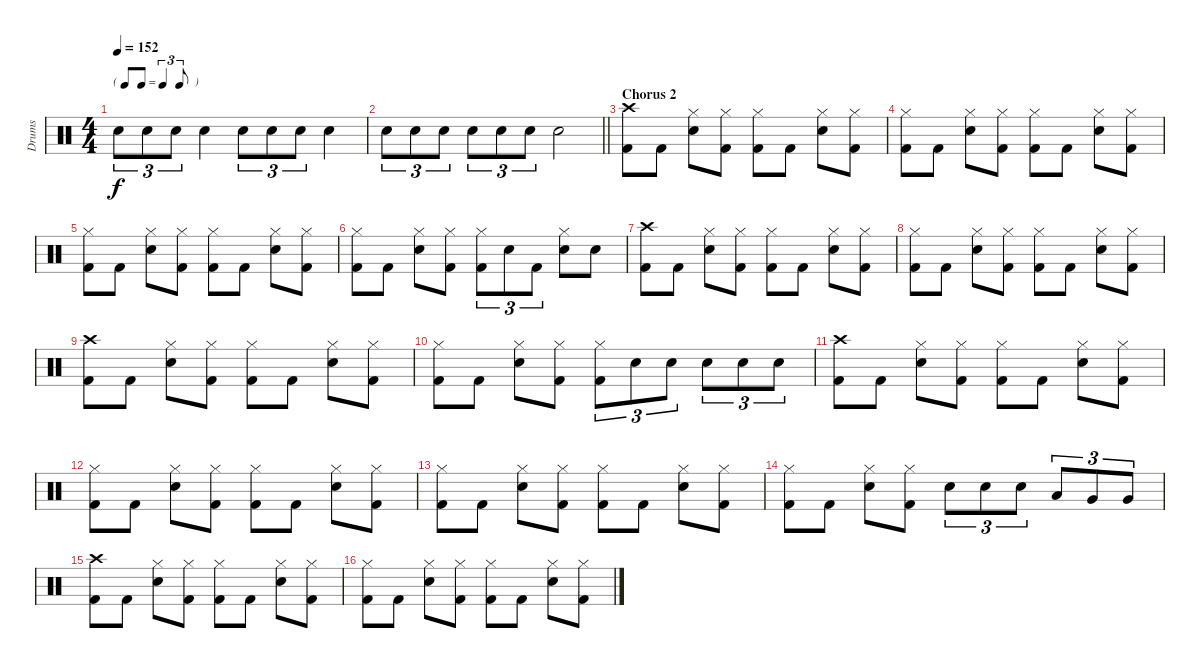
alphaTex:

\track ("Drums" "Drums") {instrument percussion}
\staff {score}
\articulation defaults
\ts (4 4)
\tf triplet8th
\tempo 152
\clef neutral
\ks c "Snare (hit) 2".8{tu (3 2) dy f} "Snare (hit) 2".8{tu (3 2)} "Snare (hit) 2".8{tu (3 2)} "Snare (hit) 2".4 "Snare (hit) 2".8{tu (3 2)} "Snare (hit) 2".8{tu (3 2)} "Snare (hit) 2".8{tu (3 2)} "Snare (hit) 2".4
|
\barLineRight lightlight "Snare (hit) 2".8{tu (3 2)} "Snare (hit) 2".8{tu (3 2)} "Snare (hit) 2".8{tu (3 2)} "Snare (hit) 2".8{tu (3 2)} "Snare (hit) 2".8{tu (3 2)} "Snare (hit) 2".8{tu (3 2)} "Snare (hit) 2".2
|
\section ("" "Chorus 2")
("Crash high (hit)" "Kick (hit) 2").8 "Kick (hit) 2".8 ("Hi-Hat (closed)" "Snare (hit) 2").8 ("Hi-Hat (closed)" "Kick (hit) 2").8 ("Hi-Hat (closed)" "Kick (hit) 2").8 "Kick (hit) 2".8 ("Hi-Hat (closed)" "Snare (hit) 2").8 ("Hi-Hat (closed)" "Kick (hit) 2").8 |
("Hi-Hat (closed)" "Kick (hit) 2").8 "Kick (hit) 2".8 ("Hi-Hat (closed)" "Snare (hit) 2").8 ("Hi-Hat (closed)" "Kick (hit) 2").8 ("Hi-Hat (closed)" "Kick (hit) 2").8 "Kick (hit) 2".8 ("Hi-Hat (closed)" "Snare (hit) 2").8 ("Hi-Hat (closed)" "Kick (hit) 2").8 |
("Hi-Hat (closed)" "Kick (hit) 2").8 "Kick (hit) 2".8 ("Hi-Hat (closed)" "Snare (hit) 2").8 ("Hi-Hat (closed)" "Kick (hit) 2").8 ("Hi-Hat (closed)" "Kick (hit) 2").8 "Kick (hit) 2".8 ("Hi-Hat (closed)" "Snare (hit) 2").8 ("Hi-Hat (closed)" "Kick (hit) 2").8 |
("Hi-Hat (closed)" "Kick (hit) 2").8 "Kick (hit) 2".8 ("Hi-Hat (closed)" "Snare (hit) 2").8 ("Hi-Hat (closed)" "Kick (hit) 2").8 ("Hi-Hat (closed)" "Kick (hit) 2").8{tu (3 2)} "Snare (hit) 2".8{tu (3 2)} "Kick (hit) 2".8{tu (3 2)} ("Hi-Hat (closed)" "Snare (hit) 2").8 "Snare (hit) 2".8 |
("Crash high (hit)" "Kick (hit) 2").8 "Kick (hit) 2".8 ("Hi-Hat (closed)" "Snare (hit) 2").8 ("Hi-Hat (closed)" "Kick (hit) 2").8 ("Hi-Hat (closed)" "Kick (hit) 2").8 "Kick (hit) 2".8 ("Hi-Hat (closed)" "Snare (hit) 2").8 ("Hi-Hat (closed)" "Kick (hit) 2").8 |
("Hi-Hat (closed)" "Kick (hit) 2").8 "Kick (hit) 2".8 ("Hi-Hat (closed)" "Snare (hit) 2").8 ("Hi-Hat (closed)" "Kick (hit) 2").8 ("Hi-Hat (closed)" "Kick (hit) 2").8 "Kick (hit) 2".8 ("Hi-Hat (closed)" "Snare (hit) 2").8 ("Hi-Hat (closed)" "Kick (hit) 2").8 |
("Crash high (hit)" "Kick (hit) 2").8 "Kick (hit) 2".8 ("Hi-Hat (closed)" "Snare (hit) 2").8 ("Hi-Hat (closed)" "Kick (hit) 2").8 ("Hi-Hat (closed)" "Kick (hit) 2").8 "Kick (hit) 2".8 ("Hi-Hat (closed)" "Snare (hit) 2").8 ("Hi-Hat (closed)" "Kick (hit) 2").8 |
("Hi-Hat (closed)" "Kick (hit) 2").8 "Kick (hit) 2".8 ("Hi-Hat (closed)" "Snare (hit) 2").8 ("Hi-Hat (closed)" "Kick (hit) 2").8 ("Hi-Hat (closed)" "Kick (hit) 2").8{tu (3 2)} "Snare (hit) 2".8{tu (3 2)} "Snare (hit) 2".8{tu (3 2)} "Snare (hit) 2".8{tu (3 2)} "Snare (hit) 2".8{tu (3 2)} "Snare (hit) 2".8{tu (3 2)} |
("Crash high (hit)" "Kick (hit) 2").8 "Kick (hit) 2".8 ("Hi-Hat (closed)" "Snare (hit) 2").8 ("Hi-Hat (closed)" "Kick (hit) 2").8 ("Hi-Hat (closed)" "Kick (hit) 2").8 "Kick (hit) 2".8 ("Hi-Hat (closed)" "Snare (hit) 2").8 ("Hi-Hat (closed)" "Kick (hit) 2").8 |
("Hi-Hat (closed)" "Kick (hit) 2").8 "Kick (hit) 2".8 ("Hi-Hat (closed)" "Snare (hit) 2").8 ("Hi-Hat (closed)" "Kick (hit) 2").8 ("Hi-Hat (closed)" "Kick (hit) 2").8 "Kick (hit) 2".8 ("Hi-Hat (closed)" "Snare (hit) 2").8 ("Hi-Hat (closed)" "Kick (hit) 2").8 |
("Hi-Hat (closed)" "Kick (hit) 2").8 "Kick (hit) 2".8 ("Hi-Hat (closed)" "Snare (hit) 2").8 ("Hi-Hat (closed)" "Kick (hit) 2").8 ("Hi-Hat (closed)" "Kick (hit) 2").8 "Kick (hit) 2".8 ("Hi-Hat (closed)" "Snare (hit) 2").8 ("Hi-Hat (closed)" "Kick (hit) 2").8 |
("Hi-Hat (closed)" "Kick (hit) 2").8 "Kick (hit) 2".8 ("Hi-Hat (closed)" "Snare (hit) 2").8 ("Hi-Hat (closed)" "Kick (hit) 2").8 "Snare (hit) 2".8{tu (3 2)} "Snare (hit) 2".8{tu (3 2)} "Snare (hit) 2".8{tu (3 2)} "Low Tom (hit)".8{tu (3 2)} "Very Low Tom (hit)".8{tu (3 2)} "Very Low Tom (hit)".8{tu (3 2)} |
("Crash high (hit)" "Kick (hit) 2").8 "Kick (hit) 2".8 ("Hi-Hat (closed)" "Snare (hit) 2").8 ("Hi-Hat (closed)" "Kick (hit) 2").8 ("Hi-Hat (closed)" "Kick (hit) 2").8 "Kick (hit) 2".8 ("Hi-Hat (closed)" "Snare (hit) 2").8 ("Hi-Hat (closed)" "Kick (hit) 2").8 |
("Hi-Hat (closed)" "Kick (hit) 2").8 "Kick (hit) 2".8 ("Hi-Hat (closed)" "Snare (hit) 2").8 ("Hi-Hat (closed)" "Kick (hit) 2").8 ("Hi-Hat (closed)" "Kick (hit) 2").8 "Kick (hit) 2".8 ("Hi-Hat (closed)" "Snare (hit) 2").8 ("Hi-Hat (closed)" "Kick (hit) 2").8
